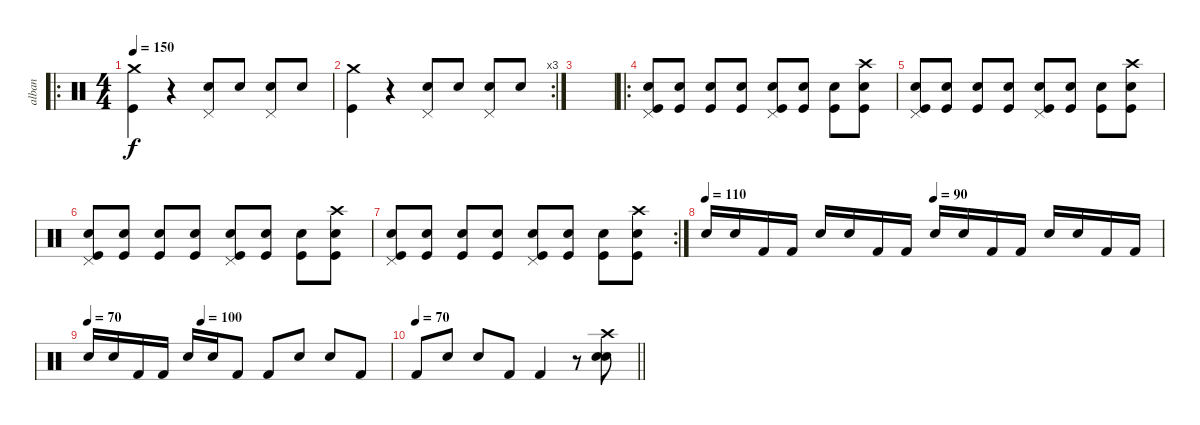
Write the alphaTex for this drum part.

\track ("alban" "alban") {instrument percussion}
\staff {score}
\articulation defaults
\ro
\ts (4 4)
\tempo 150
\clef neutral
\ks c
("Crash medium (hit)" "Kick (hit)").4{dy f} r.4 ("Electric Snare (hit)" "Pedal Hi-Hat (hit)").8 "Snare (hit) 2".8 ("Electric Snare (hit)" "Pedal Hi-Hat (hit)").8 "Snare (hit) 2".8 |
\rc 3
("Crash medium (hit)" "Kick (hit)").4 r.4 ("Electric Snare (hit)" "Pedal Hi-Hat (hit)").8 "Snare (hit) 2".8 ("Electric Snare (hit)" "Pedal Hi-Hat (hit)").8 "Snare (hit) 2".8 |
|
\ro
("Electric Snare (hit)" "Kick (hit)" "Pedal Hi-Hat (hit)").8 ("Electric Snare (hit)" "Kick (hit)").8 ("Electric Snare (hit)" "Kick (hit)").8 ("Electric Snare (hit)" "Kick (hit)").8 ("Electric Snare (hit)" "Kick (hit)" "Pedal Hi-Hat (hit)").8 ("Electric Snare (hit)" "Kick (hit)").8 ("Electric Snare (hit)" "Kick (hit)").8 ("Electric Snare (hit)" "Kick (hit)" "Crash high (hit)").8 |
("Electric Snare (hit)" "Kick (hit)" "Pedal Hi-Hat (hit)").8 ("Electric Snare (hit)" "Kick (hit)").8 ("Electric Snare (hit)" "Kick (hit)").8 ("Electric Snare (hit)" "Kick (hit)").8 ("Electric Snare (hit)" "Kick (hit)" "Pedal Hi-Hat (hit)").8 ("Electric Snare (hit)" "Kick (hit)").8 ("Electric Snare (hit)" "Kick (hit)").8 ("Electric Snare (hit)" "Kick (hit)" "Crash high (hit)").8 |
("Electric Snare (hit)" "Kick (hit)" "Pedal Hi-Hat (hit)").8 ("Electric Snare (hit)" "Kick (hit)").8 ("Electric Snare (hit)" "Kick (hit)").8 ("Electric Snare (hit)" "Kick (hit)").8 ("Electric Snare (hit)" "Kick (hit)" "Pedal Hi-Hat (hit)").8 ("Electric Snare (hit)" "Kick (hit)").8 ("Electric Snare (hit)" "Kick (hit)").8 ("Electric Snare (hit)" "Kick (hit)" "Crash high (hit)").8 |
\rc 2
("Electric Snare (hit)" "Kick (hit)" "Pedal Hi-Hat (hit)").8 ("Electric Snare (hit)" "Kick (hit)").8 ("Electric Snare (hit)" "Kick (hit)").8 ("Electric Snare (hit)" "Kick (hit)").8 ("Electric Snare (hit)" "Kick (hit)" "Pedal Hi-Hat (hit)").8 ("Electric Snare (hit)" "Kick (hit)").8 ("Electric Snare (hit)" "Kick (hit)").8 ("Electric Snare (hit)" "Kick (hit)" "Crash high (hit)").8 |
\tempo 110
\tempo (90 0.5)
"Electric Snare (hit)".16 "Snare (hit) 2".16 "Kick (hit) 2".16 "Kick (hit) 2".16 "Electric Snare (hit)".16 "Snare (hit) 2".16 "Kick (hit) 2".16 "Kick (hit) 2".16 "Electric Snare (hit)".16 "Snare (hit) 2".16 "Kick (hit) 2".16 "Kick (hit) 2".16 "Electric Snare (hit)".16 "Snare (hit) 2".16 "Kick (hit) 2".16 "Kick (hit) 2".16 |
\tempo 70
\tempo (100 0.375)
"Electric Snare (hit)".16 "Snare (hit) 2".16 "Kick (hit) 2".16 "Kick (hit) 2".16 "Electric Snare (hit)".16 "Snare (hit) 2".16 "Kick (hit) 2".8 "Kick (hit) 2".8 "Electric Snare (hit)".8 "Snare (hit) 2".8 "Kick (hit) 2".8 |
\tempo 70
\barLineRight lightlight "Kick (hit) 2".8 "Electric Snare (hit)".8 "Snare (hit) 2".8 "Kick (hit) 2".8 "Kick (hit) 2".4
r.8 ("Crash high (hit)" "Electric Snare (hit)" "Snare (hit) 2").8
